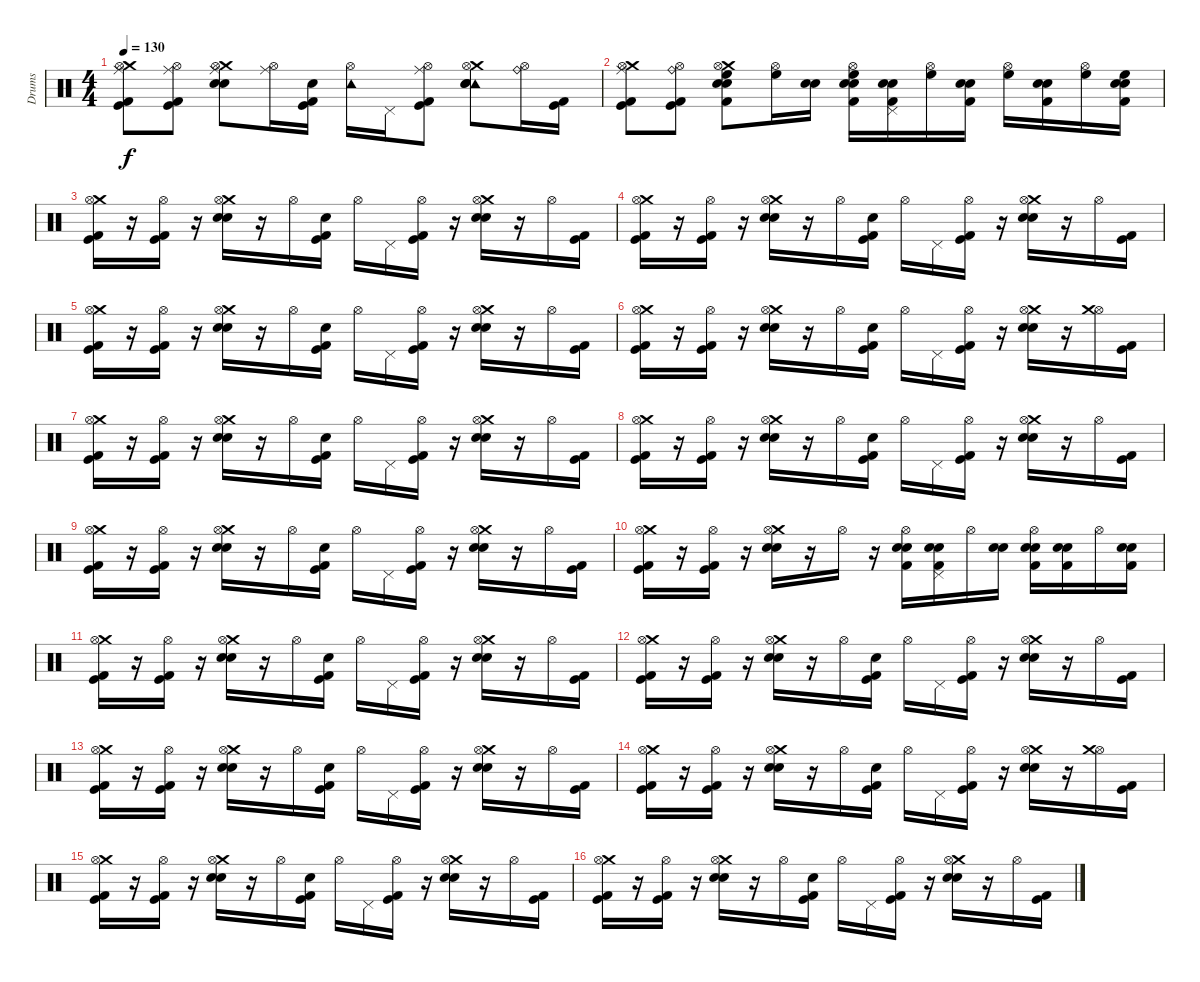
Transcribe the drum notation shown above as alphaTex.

\track ("Drums" "Drums") {instrument percussion}
\staff {score}
\articulation defaults
\ts (4 4)
\tempo 130
\clef neutral
\ks c
("Ride (middle)" "Kick (hit) 2" "Kick (hit)" "Crash medium (hit)" "Hi-Hat (open)").8{dy f} ("Ride (middle)" "Kick (hit) 2" "Kick (hit)" "Hi-Hat (open)").8 ("Ride (middle)" "Snare (hit) 2" "Electric Snare (hit)" "Crash medium (hit)" "Hi-Hat (open)").8 ("Ride (middle)" "Hi-Hat (open)").16 ("Kick (hit) 2" "Kick (hit)" "Electric Snare (hit)").16 ("Tambourine (hit)" "Hi-Hat (open)").16 "Pedal Hi-Hat (hit)".16 ("Ride (middle)" "Kick (hit) 2" "Kick (hit)" "Hi-Hat (open)").8 ("Tambourine (hit)" "Snare (hit) 2" "Electric Snare (hit)" "Crash medium (hit)" "Hi-Hat (open)").8 ("Ride (bell)" "Hi-Hat (open)").16 ("Kick (hit) 2" "Kick (hit)").16 |
("Ride (middle)" "Kick (hit) 2" "Kick (hit)" "Crash medium (hit)" "Hi-Hat (open)").8 ("Ride (bell)" "Kick (hit) 2" "Kick (hit)" "Hi-Hat (open)").8 ("High Floor Tom (hit)" "Crash medium (hit)" "Hi-Hat (open)" "Electric Snare (hit)" "Snare (hit) 2" "Kick (hit) 2").8 ("High Floor Tom (hit)" "Hi-Hat (open)").16 ("Electric Snare (hit)" "Electric Snare (hit)").16 ("High Floor Tom (hit)" "Hi-Hat (open)" "Snare (hit) 2" "Electric Snare (hit)" "Kick (hit) 2").16 ("Pedal Hi-Hat (hit)" "Electric Snare (hit)" "Snare (hit) 2" "Kick (hit) 2").16 ("High Floor Tom (hit)" "Hi-Hat (open)").16 ("Electric Snare (hit)" "Snare (hit) 2" "Kick (hit) 2").16 ("High Floor Tom (hit)" "Hi-Hat (open)").16 ("Electric Snare (hit)" "Snare (hit) 2" "Kick (hit) 2").16 ("High Floor Tom (hit)" "Hi-Hat (open)").16 ("High Floor Tom (hit)" "Electric Snare (hit)" "Snare (hit) 2" "Kick (hit) 2").16 |
("Kick (hit) 2" "Kick (hit)" "Crash medium (hit)" "Hi-Hat (open)").16 r.16 ("Kick (hit) 2" "Kick (hit)" "Hi-Hat (open)").16 r.16 ("Snare (hit) 2" "Electric Snare (hit)" "Crash medium (hit)" "Hi-Hat (open)").16 r.16 "Hi-Hat (open)".16 ("Kick (hit) 2" "Kick (hit)" "Electric Snare (hit)").16 "Hi-Hat (open)".16 "Pedal Hi-Hat (hit)".16 ("Kick (hit) 2" "Kick (hit)" "Hi-Hat (open)").16 r.16 ("Snare (hit) 2" "Electric Snare (hit)" "Crash medium (hit)" "Hi-Hat (open)").16 r.16 "Hi-Hat (open)".16 ("Kick (hit) 2" "Kick (hit)").16 |
("Kick (hit) 2" "Kick (hit)" "Crash medium (hit)" "Hi-Hat (open)").16 r.16 ("Kick (hit) 2" "Kick (hit)" "Hi-Hat (open)").16 r.16 ("Snare (hit) 2" "Electric Snare (hit)" "Crash medium (hit)" "Hi-Hat (open)").16 r.16 "Hi-Hat (open)".16 ("Kick (hit) 2" "Kick (hit)" "Electric Snare (hit)").16 "Hi-Hat (open)".16 "Pedal Hi-Hat (hit)".16 ("Kick (hit) 2" "Kick (hit)" "Hi-Hat (open)").16 r.16 ("Snare (hit) 2" "Electric Snare (hit)" "Crash medium (hit)" "Hi-Hat (open)").16 r.16 "Hi-Hat (open)".16 ("Kick (hit) 2" "Kick (hit)").16 |
("Kick (hit) 2" "Kick (hit)" "Crash medium (hit)" "Hi-Hat (open)").16 r.16 ("Kick (hit) 2" "Kick (hit)" "Hi-Hat (open)").16 r.16 ("Snare (hit) 2" "Electric Snare (hit)" "Crash medium (hit)" "Hi-Hat (open)").16 r.16 "Hi-Hat (open)".16 ("Kick (hit) 2" "Kick (hit)" "Electric Snare (hit)").16 "Hi-Hat (open)".16 "Pedal Hi-Hat (hit)".16 ("Kick (hit) 2" "Kick (hit)" "Hi-Hat (open)").16 r.16 ("Snare (hit) 2" "Electric Snare (hit)" "Crash medium (hit)" "Hi-Hat (open)").16 r.16 "Hi-Hat (open)".16 ("Kick (hit) 2" "Kick (hit)").16 |
("Kick (hit) 2" "Kick (hit)" "Crash medium (hit)" "Hi-Hat (open)").16 r.16 ("Kick (hit) 2" "Kick (hit)" "Hi-Hat (open)").16 r.16 ("Snare (hit) 2" "Electric Snare (hit)" "Crash medium (hit)" "Hi-Hat (open)").16 r.16 "Hi-Hat (open)".16 ("Kick (hit) 2" "Kick (hit)" "Electric Snare (hit)").16 "Hi-Hat (open)".16 "Pedal Hi-Hat (hit)".16 ("Kick (hit) 2" "Kick (hit)" "Hi-Hat (open)").16 r.16 ("Snare (hit) 2" "Electric Snare (hit)" "Crash medium (hit)" "Hi-Hat (open)").16 r.16 ("Hi-Hat (open)" "Crash medium (hit)").16 ("Kick (hit) 2" "Kick (hit)").16 |
("Kick (hit) 2" "Kick (hit)" "Crash medium (hit)" "Hi-Hat (open)").16 r.16 ("Kick (hit) 2" "Kick (hit)" "Hi-Hat (open)").16 r.16 ("Snare (hit) 2" "Electric Snare (hit)" "Crash medium (hit)" "Hi-Hat (open)").16 r.16 "Hi-Hat (open)".16 ("Kick (hit) 2" "Kick (hit)" "Electric Snare (hit)").16 "Hi-Hat (open)".16 "Pedal Hi-Hat (hit)".16 ("Kick (hit) 2" "Kick (hit)" "Hi-Hat (open)").16 r.16 ("Snare (hit) 2" "Electric Snare (hit)" "Crash medium (hit)" "Hi-Hat (open)").16 r.16 "Hi-Hat (open)".16 ("Kick (hit) 2" "Kick (hit)").16 |
("Kick (hit) 2" "Kick (hit)" "Crash medium (hit)" "Hi-Hat (open)").16 r.16 ("Kick (hit) 2" "Kick (hit)" "Hi-Hat (open)").16 r.16 ("Snare (hit) 2" "Electric Snare (hit)" "Crash medium (hit)" "Hi-Hat (open)").16 r.16 "Hi-Hat (open)".16 ("Kick (hit) 2" "Kick (hit)" "Electric Snare (hit)").16 "Hi-Hat (open)".16 "Pedal Hi-Hat (hit)".16 ("Kick (hit) 2" "Kick (hit)" "Hi-Hat (open)").16 r.16 ("Snare (hit) 2" "Electric Snare (hit)" "Crash medium (hit)" "Hi-Hat (open)").16 r.16 "Hi-Hat (open)".16 ("Kick (hit) 2" "Kick (hit)").16 |
("Kick (hit) 2" "Kick (hit)" "Crash medium (hit)" "Hi-Hat (open)").16 r.16 ("Kick (hit) 2" "Kick (hit)" "Hi-Hat (open)").16 r.16 ("Snare (hit) 2" "Electric Snare (hit)" "Crash medium (hit)" "Hi-Hat (open)").16 r.16 "Hi-Hat (open)".16 ("Kick (hit) 2" "Kick (hit)" "Electric Snare (hit)").16 "Hi-Hat (open)".16 "Pedal Hi-Hat (hit)".16 ("Kick (hit) 2" "Kick (hit)" "Hi-Hat (open)").16 r.16 ("Snare (hit) 2" "Electric Snare (hit)" "Crash medium (hit)" "Hi-Hat (open)").16 r.16 "Hi-Hat (open)".16 ("Kick (hit) 2" "Kick (hit)").16 |
("Kick (hit) 2" "Kick (hit)" "Crash medium (hit)" "Hi-Hat (open)").16 r.16 ("Kick (hit) 2" "Kick (hit)" "Hi-Hat (open)").16 r.16 ("Snare (hit) 2" "Electric Snare (hit)" "Crash medium (hit)" "Hi-Hat (open)").16 r.16 "Hi-Hat (open)".16 r.16 ("Hi-Hat (open)" "Electric Snare (hit)" "Snare (hit) 2" "Kick (hit) 2").16 ("Electric Snare (hit)" "Snare (hit) 2" "Kick (hit) 2" "Pedal Hi-Hat (hit)").16 "Hi-Hat (open)".16 ("Electric Snare (hit)" "Electric Snare (hit)").16 ("Hi-Hat (open)" "Snare (hit) 2" "Electric Snare (hit)" "Kick (hit) 2").16 ("Electric Snare (hit)" "Snare (hit) 2" "Kick (hit) 2").16 "Hi-Hat (open)".16 ("Electric Snare (hit)" "Snare (hit) 2" "Kick (hit) 2").16 |
("Kick (hit) 2" "Kick (hit)" "Crash medium (hit)" "Hi-Hat (open)").16 r.16 ("Kick (hit) 2" "Kick (hit)" "Hi-Hat (open)").16 r.16 ("Snare (hit) 2" "Electric Snare (hit)" "Crash medium (hit)" "Hi-Hat (open)").16 r.16 "Hi-Hat (open)".16 ("Kick (hit) 2" "Kick (hit)" "Electric Snare (hit)").16 "Hi-Hat (open)".16 "Pedal Hi-Hat (hit)".16 ("Kick (hit) 2" "Kick (hit)" "Hi-Hat (open)").16 r.16 ("Snare (hit) 2" "Electric Snare (hit)" "Crash medium (hit)" "Hi-Hat (open)").16 r.16 "Hi-Hat (open)".16 ("Kick (hit) 2" "Kick (hit)").16 |
("Kick (hit) 2" "Kick (hit)" "Crash medium (hit)" "Hi-Hat (open)").16 r.16 ("Kick (hit) 2" "Kick (hit)" "Hi-Hat (open)").16 r.16 ("Snare (hit) 2" "Electric Snare (hit)" "Crash medium (hit)" "Hi-Hat (open)").16 r.16 "Hi-Hat (open)".16 ("Kick (hit) 2" "Kick (hit)" "Electric Snare (hit)").16 "Hi-Hat (open)".16 "Pedal Hi-Hat (hit)".16 ("Kick (hit) 2" "Kick (hit)" "Hi-Hat (open)").16 r.16 ("Snare (hit) 2" "Electric Snare (hit)" "Crash medium (hit)" "Hi-Hat (open)").16 r.16 "Hi-Hat (open)".16 ("Kick (hit) 2" "Kick (hit)").16 |
("Kick (hit) 2" "Kick (hit)" "Crash medium (hit)" "Hi-Hat (open)").16 r.16 ("Kick (hit) 2" "Kick (hit)" "Hi-Hat (open)").16 r.16 ("Snare (hit) 2" "Electric Snare (hit)" "Crash medium (hit)" "Hi-Hat (open)").16 r.16 "Hi-Hat (open)".16 ("Kick (hit) 2" "Kick (hit)" "Electric Snare (hit)").16 "Hi-Hat (open)".16 "Pedal Hi-Hat (hit)".16 ("Kick (hit) 2" "Kick (hit)" "Hi-Hat (open)").16 r.16 ("Snare (hit) 2" "Electric Snare (hit)" "Crash medium (hit)" "Hi-Hat (open)").16 r.16 "Hi-Hat (open)".16 ("Kick (hit) 2" "Kick (hit)").16 |
("Kick (hit) 2" "Kick (hit)" "Crash medium (hit)" "Hi-Hat (open)").16 r.16 ("Kick (hit) 2" "Kick (hit)" "Hi-Hat (open)").16 r.16 ("Snare (hit) 2" "Electric Snare (hit)" "Crash medium (hit)" "Hi-Hat (open)").16 r.16 "Hi-Hat (open)".16 ("Kick (hit) 2" "Kick (hit)" "Electric Snare (hit)").16 "Hi-Hat (open)".16 "Pedal Hi-Hat (hit)".16 ("Kick (hit) 2" "Kick (hit)" "Hi-Hat (open)").16 r.16 ("Snare (hit) 2" "Electric Snare (hit)" "Crash medium (hit)" "Hi-Hat (open)").16 r.16 ("Hi-Hat (open)" "Crash medium (hit)").16 ("Kick (hit) 2" "Kick (hit)").16 |
("Kick (hit) 2" "Kick (hit)" "Crash medium (hit)" "Hi-Hat (open)").16 r.16 ("Kick (hit) 2" "Kick (hit)" "Hi-Hat (open)").16 r.16 ("Snare (hit) 2" "Electric Snare (hit)" "Crash medium (hit)" "Hi-Hat (open)").16 r.16 "Hi-Hat (open)".16 ("Kick (hit) 2" "Kick (hit)" "Electric Snare (hit)").16 "Hi-Hat (open)".16 "Pedal Hi-Hat (hit)".16 ("Kick (hit) 2" "Kick (hit)" "Hi-Hat (open)").16 r.16 ("Snare (hit) 2" "Electric Snare (hit)" "Crash medium (hit)" "Hi-Hat (open)").16 r.16 "Hi-Hat (open)".16 ("Kick (hit) 2" "Kick (hit)").16 |
("Kick (hit) 2" "Kick (hit)" "Crash medium (hit)" "Hi-Hat (open)").16 r.16 ("Kick (hit) 2" "Kick (hit)" "Hi-Hat (open)").16 r.16 ("Snare (hit) 2" "Electric Snare (hit)" "Crash medium (hit)" "Hi-Hat (open)").16 r.16 "Hi-Hat (open)".16 ("Kick (hit) 2" "Kick (hit)" "Electric Snare (hit)").16 "Hi-Hat (open)".16 "Pedal Hi-Hat (hit)".16 ("Kick (hit) 2" "Kick (hit)" "Hi-Hat (open)").16 r.16 ("Snare (hit) 2" "Electric Snare (hit)" "Crash medium (hit)" "Hi-Hat (open)").16 r.16 "Hi-Hat (open)".16 ("Kick (hit) 2" "Kick (hit)").16
